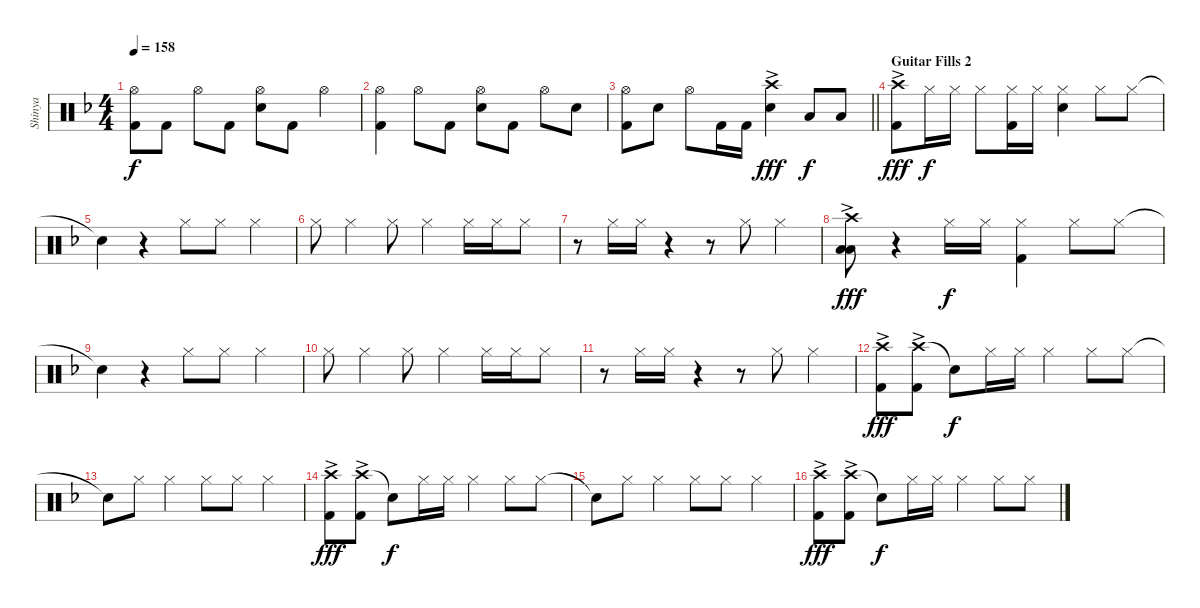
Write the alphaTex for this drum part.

\track ("Shinya" "Shinya") {instrument percussion}
\staff {score}
\articulation defaults
\ts (4 4)
\tempo 158
\clef neutral
\ks f
("Hi-Hat (open)" "Kick (hit) 2").8{dy f} "Kick (hit) 2".8 "Hi-Hat (open)".8 "Kick (hit) 2".8 ("Hi-Hat (open)" "Snare (hit) 2").8 "Kick (hit) 2".8 "Hi-Hat (open)".4 |
("Hi-Hat (open)" "Kick (hit) 2").4 "Hi-Hat (open)".8 "Kick (hit) 2".8 ("Hi-Hat (open)" "Snare (hit) 2").8 "Kick (hit) 2".8 "Hi-Hat (open)".8 "Snare (hit) 2".8 |
\barLineRight lightlight
("Hi-Hat (open)" "Kick (hit) 2").8 "Snare (hit) 2".8 "Hi-Hat (open)".8 "Kick (hit) 2".16 "Kick (hit) 2".16 ("Crash high (hit)"{ac} "Snare (hit) 2").4{dy fff} "Low Tom (hit)".8{dy f} "Low Tom (hit)".8 |
\section ("" "Guitar Fills 2")
("Crash high (hit)"{ac} "Kick (hit) 2").8{dy fff} "Hi-Hat (closed)".16{dy f} "Hi-Hat (closed)".16 "Hi-Hat (closed)".8 ("Hi-Hat (closed)" "Kick (hit) 2").16 "Hi-Hat (closed)".16 ("Hi-Hat (closed)" "Snare (hit) 2").4 "Hi-Hat (closed)".8 "Hi-Hat (closed)".8 |
"Snare (hit)"{t}.4 r.4 "Hi-Hat (closed)".8 "Hi-Hat (closed)".8 "Hi-Hat (closed)".4 |
"Hi-Hat (closed)".8 "Hi-Hat (closed)".4 "Hi-Hat (closed)".8 "Hi-Hat (closed)".4 "Hi-Hat (closed)".16 "Hi-Hat (closed)".16 "Hi-Hat (closed)".8 |
r.8 "Hi-Hat (closed)".16 "Hi-Hat (closed)".16 r.4 r.8 "Hi-Hat (closed)".8 "Hi-Hat (closed)".4 |
("Crash high (hit)"{ac} "Low Tom (hit)" "Low Floor Tom (hit)").8{dy fff} r.4 "Hi-Hat (closed)".16{dy f} "Hi-Hat (closed)".16 ("Hi-Hat (closed)" "Kick (hit) 2").4 "Hi-Hat (closed)".8 "Hi-Hat (closed)".8 |
"Snare (hit)"{t}.4 r.4 "Hi-Hat (closed)".8 "Hi-Hat (closed)".8 "Hi-Hat (closed)".4 |
"Hi-Hat (closed)".8 "Hi-Hat (closed)".4 "Hi-Hat (closed)".8 "Hi-Hat (closed)".4 "Hi-Hat (closed)".16 "Hi-Hat (closed)".16 "Hi-Hat (closed)".8 |
r.8 "Hi-Hat (closed)".16 "Hi-Hat (closed)".16 r.4 r.8 "Hi-Hat (closed)".8 "Hi-Hat (closed)".4 |
("Crash high (hit)"{ac} "Kick (hit) 2").8{dy fff} ("Crash high (hit)"{ac} "Kick (hit) 2").8 "Snare (hit)"{t}.8{dy f} "Hi-Hat (closed)".16 "Hi-Hat (closed)".16 "Hi-Hat (closed)".4 "Hi-Hat (closed)".8 "Hi-Hat (closed)".8 |
"Snare (hit)"{t}.8 "Hi-Hat (closed)".8 "Hi-Hat (closed)".4 "Hi-Hat (closed)".8 "Hi-Hat (closed)".8 "Hi-Hat (closed)".4 |
("Crash high (hit)"{ac} "Kick (hit) 2").8{dy fff} ("Crash high (hit)"{ac} "Kick (hit) 2").8 "Snare (hit)"{t}.8{dy f} "Hi-Hat (closed)".16 "Hi-Hat (closed)".16 "Hi-Hat (closed)".4 "Hi-Hat (closed)".8 "Hi-Hat (closed)".8 |
"Snare (hit)"{t}.8 "Hi-Hat (closed)".8 "Hi-Hat (closed)".4 "Hi-Hat (closed)".8 "Hi-Hat (closed)".8 "Hi-Hat (closed)".4 |
("Crash high (hit)"{ac} "Kick (hit) 2").8{dy fff} ("Crash high (hit)"{ac} "Kick (hit) 2").8 "Snare (hit)"{t}.8{dy f} "Hi-Hat (closed)".16 "Hi-Hat (closed)".16 "Hi-Hat (closed)".4 "Hi-Hat (closed)".8 "Hi-Hat (closed)".8
